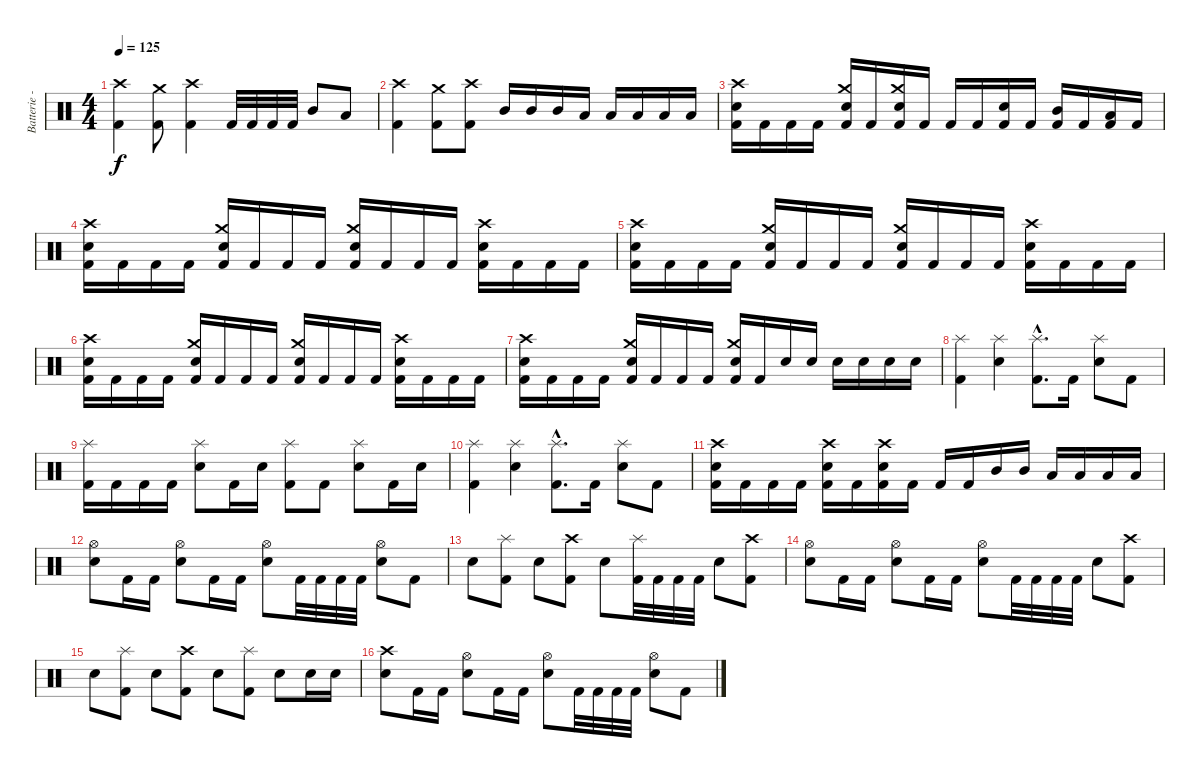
\track ("Batterie - Anton" "Batterie -") {instrument percussion}
\staff {score}
\articulation defaults
\ts (4 4)
\tempo 125
\clef neutral
\ks c
("Crash high (hit)" "Kick (hit) 2").4{dy f} ("Crash medium (hit)" "Kick (hit) 2").8 ("Crash high (hit)" "Kick (hit) 2").4 "Kick (hit) 2".32 "Kick (hit) 2".32 "Kick (hit) 2".32 "Kick (hit) 2".32 "Mid Tom (hit)".8 "Low Tom (hit)".8 |
("Crash high (hit)" "Kick (hit) 2").4 ("Crash medium (hit)" "Kick (hit) 2").8 ("Crash high (hit)" "Kick (hit) 2").8 "Mid Tom (hit)".16 "Mid Tom (hit)".16 "Mid Tom (hit)".16 "Low Tom (hit)".16 "Low Tom (hit)".16 "Low Tom (hit)".16 "Low Floor Tom (hit)".16 "Low Floor Tom (hit)".16 |
("Crash high (hit)" "Electric Snare (hit)" "Kick (hit) 2").16 "Kick (hit) 2".16 "Kick (hit) 2".16 "Kick (hit) 2".16 ("Crash medium (hit)" "Electric Snare (hit)" "Kick (hit) 2").16 "Kick (hit) 2".16 ("Crash medium (hit)" "Electric Snare (hit)" "Kick (hit) 2").16 "Kick (hit) 2".16 "Kick (hit) 2".16 "Kick (hit) 2".16 ("Electric Snare (hit)" "Kick (hit) 2").16 "Kick (hit) 2".16 ("Mid Tom (hit)" "Kick (hit) 2").16 "Kick (hit) 2".16 ("Low Tom (hit)" "Kick (hit) 2").16 "Kick (hit) 2".16 |
("Crash high (hit)" "Electric Snare (hit)" "Kick (hit) 2").16 "Kick (hit) 2".16 "Kick (hit) 2".16 "Kick (hit) 2".16 ("Crash medium (hit)" "Electric Snare (hit)" "Kick (hit) 2").16 "Kick (hit) 2".16 "Kick (hit) 2".16 "Kick (hit) 2".16 ("Crash medium (hit)" "Electric Snare (hit)" "Kick (hit) 2").16 "Kick (hit) 2".16 "Kick (hit) 2".16 "Kick (hit) 2".16 ("Crash high (hit)" "Electric Snare (hit)" "Kick (hit) 2").16 "Kick (hit) 2".16 "Kick (hit) 2".16 "Kick (hit) 2".16 |
("Crash high (hit)" "Electric Snare (hit)" "Kick (hit) 2").16 "Kick (hit) 2".16 "Kick (hit) 2".16 "Kick (hit) 2".16 ("Crash medium (hit)" "Electric Snare (hit)" "Kick (hit) 2").16 "Kick (hit) 2".16 "Kick (hit) 2".16 "Kick (hit) 2".16 ("Crash medium (hit)" "Electric Snare (hit)" "Kick (hit) 2").16 "Kick (hit) 2".16 "Kick (hit) 2".16 "Kick (hit) 2".16 ("Crash high (hit)" "Electric Snare (hit)" "Kick (hit) 2").16 "Kick (hit) 2".16 "Kick (hit) 2".16 "Kick (hit) 2".16 |
("Crash high (hit)" "Electric Snare (hit)" "Kick (hit) 2").16 "Kick (hit) 2".16 "Kick (hit) 2".16 "Kick (hit) 2".16 ("Crash medium (hit)" "Electric Snare (hit)" "Kick (hit) 2").16 "Kick (hit) 2".16 "Kick (hit) 2".16 "Kick (hit) 2".16 ("Crash medium (hit)" "Electric Snare (hit)" "Kick (hit) 2").16 "Kick (hit) 2".16 "Kick (hit) 2".16 "Kick (hit) 2".16 ("Crash high (hit)" "Electric Snare (hit)" "Kick (hit) 2").16 "Kick (hit) 2".16 "Kick (hit) 2".16 "Kick (hit) 2".16 |
("Crash high (hit)" "Electric Snare (hit)" "Kick (hit) 2").16 "Kick (hit) 2".16 "Kick (hit) 2".16 "Kick (hit) 2".16 ("Crash medium (hit)" "Electric Snare (hit)" "Kick (hit) 2").16 "Kick (hit) 2".16 "Kick (hit) 2".16 "Kick (hit) 2".16 ("Crash medium (hit)" "Electric Snare (hit)" "Kick (hit) 2").16 "Kick (hit) 2".16 "Electric Snare (hit)".16 "Electric Snare (hit)".16 "Electric Snare (hit)".16 "Electric Snare (hit)".16 "Electric Snare (hit)".16 "Electric Snare (hit)".16 |
("Splash (hit)" "Kick (hit) 2").4 ("Splash (hit)" "Electric Snare (hit)").4 ("Splash (hit)"{hac} "Kick (hit) 2"{hac}).8{d} "Kick (hit) 2".16 ("Splash (hit)" "Electric Snare (hit)").8 "Kick (hit) 2".8 |
("Splash (hit)" "Kick (hit) 2").16 "Kick (hit) 2".16 "Kick (hit) 2".16 "Kick (hit) 2".16 ("Splash (hit)" "Electric Snare (hit)").8 "Kick (hit) 2".16 "Electric Snare (hit)".16 ("Splash (hit)" "Kick (hit) 2").8 "Kick (hit) 2".8 ("Splash (hit)" "Electric Snare (hit)").8 "Kick (hit) 2".16 "Electric Snare (hit)".16 |
("Splash (hit)" "Kick (hit) 2").4 ("Splash (hit)" "Electric Snare (hit)").4 ("Splash (hit)"{hac} "Kick (hit) 2"{hac}).8{d} "Kick (hit) 2".16 ("Splash (hit)" "Electric Snare (hit)").8 "Kick (hit) 2".8 |
("Crash high (hit)" "Electric Snare (hit)" "Kick (hit) 2").16 "Kick (hit) 2".16 "Kick (hit) 2".16 "Kick (hit) 2".16 ("Crash high (hit)" "Electric Snare (hit)" "Kick (hit) 2").16 "Kick (hit) 2".16 ("Crash high (hit)" "Electric Snare (hit)" "Kick (hit) 2").16 "Kick (hit) 2".16 "Kick (hit) 2".16 "Kick (hit) 2".16 "Mid Tom (hit)".16 "Mid Tom (hit)".16 "Low Tom (hit)".16 "Low Tom (hit)".16 "Low Floor Tom (hit)".16 "Low Floor Tom (hit)".16 |
("Hi-Hat (open)" "Electric Snare (hit)").8 "Kick (hit) 2".16 "Kick (hit) 2".16 ("Hi-Hat (open)" "Electric Snare (hit)").8 "Kick (hit) 2".16 "Kick (hit) 2".16 ("Hi-Hat (open)" "Electric Snare (hit)").8 "Kick (hit) 2".32 "Kick (hit) 2".32 "Kick (hit) 2".32 "Kick (hit) 2".32 ("Hi-Hat (open)" "Electric Snare (hit)").8 "Kick (hit) 2".8 |
"Electric Snare (hit)".8 ("Splash (hit)" "Kick (hit) 2").8 "Electric Snare (hit)".8 ("Crash high (hit)" "Kick (hit) 2").8 "Electric Snare (hit)".8 ("Splash (hit)" "Kick (hit) 2").32 "Kick (hit) 2".32 "Kick (hit) 2".32 "Kick (hit) 2".32 "Electric Snare (hit)".8 ("Crash high (hit)" "Kick (hit) 2").8 |
("Hi-Hat (open)" "Electric Snare (hit)").8 "Kick (hit) 2".16 "Kick (hit) 2".16 ("Hi-Hat (open)" "Electric Snare (hit)").8 "Kick (hit) 2".16 "Kick (hit) 2".16 ("Hi-Hat (open)" "Electric Snare (hit)").8 "Kick (hit) 2".32 "Kick (hit) 2".32 "Kick (hit) 2".32 "Kick (hit) 2".32 "Electric Snare (hit)".8 ("Crash high (hit)" "Kick (hit) 2").8 |
"Electric Snare (hit)".8 ("Splash (hit)" "Kick (hit) 2").8 "Electric Snare (hit)".8 ("Crash high (hit)" "Kick (hit) 2").8 "Electric Snare (hit)".8 ("Splash (hit)" "Kick (hit) 2").8 "Electric Snare (hit)".8 "Electric Snare (hit)".16 "Electric Snare (hit)".16 |
("Crash high (hit)" "Electric Snare (hit)").8 "Kick (hit) 2".16 "Kick (hit) 2".16 ("Hi-Hat (open)" "Electric Snare (hit)").8 "Kick (hit) 2".16 "Kick (hit) 2".16 ("Hi-Hat (open)" "Electric Snare (hit)").8 "Kick (hit) 2".32 "Kick (hit) 2".32 "Kick (hit) 2".32 "Kick (hit) 2".32 ("Hi-Hat (open)" "Electric Snare (hit)").8 "Kick (hit) 2".8
